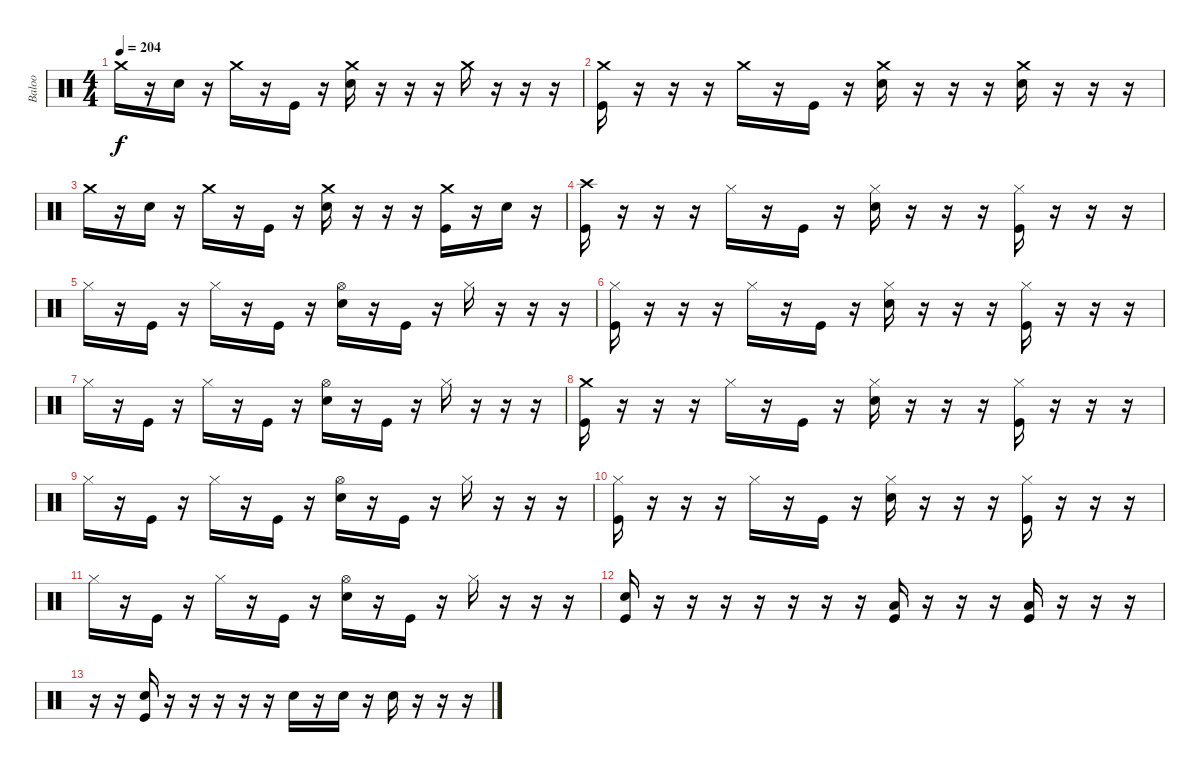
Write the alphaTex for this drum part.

\track ("Baloo" "Baloo") {instrument percussion}
\staff {score}
\articulation defaults
\ts (4 4)
\tempo 204
\clef neutral
\ks c "Crash medium (hit)".16{dy f}
r.16 "Electric Snare (hit)".16 r.16 "Crash medium (hit)".16 r.16 "Kick (hit)".16 r.16 ("Crash medium (hit)" "Electric Snare (hit)").16 r.16 r.16 r.16 "Crash medium (hit)".16 r.16 r.16 r.16 |
("Crash medium (hit)" "Kick (hit)").16 r.16 r.16 r.16 "Crash medium (hit)".16 r.16 "Kick (hit)".16 r.16 ("Crash medium (hit)" "Electric Snare (hit)").16 r.16 r.16 r.16 ("Crash medium (hit)" "Electric Snare (hit)").16 r.16 r.16 r.16 |
"Crash medium (hit)".16 r.16 "Electric Snare (hit)".16 r.16 "Crash medium (hit)".16 r.16 "Kick (hit)".16 r.16 ("Crash medium (hit)" "Electric Snare (hit)").16 r.16 r.16 r.16 ("Crash medium (hit)" "Kick (hit)").16 r.16 "Electric Snare (hit)".16 r.16 |
("Crash high (hit)" "Kick (hit)").16 r.16 r.16 r.16 "Hi-Hat (closed)".16 r.16 "Kick (hit)".16 r.16 ("Hi-Hat (closed)" "Electric Snare (hit)").16 r.16 r.16 r.16 ("Hi-Hat (closed)" "Kick (hit)").16 r.16 r.16 r.16 |
"Hi-Hat (closed)".16 r.16 "Kick (hit)".16 r.16 "Hi-Hat (closed)".16 r.16 "Kick (hit)".16 r.16 ("Hi-Hat (open)" "Electric Snare (hit)").16 r.16 "Kick (hit)".16 r.16 "Hi-Hat (closed)".16 r.16 r.16 r.16 |
("Hi-Hat (closed)" "Kick (hit)").16 r.16 r.16 r.16 "Hi-Hat (closed)".16 r.16 "Kick (hit)".16 r.16 ("Hi-Hat (closed)" "Electric Snare (hit)").16 r.16 r.16 r.16 ("Hi-Hat (closed)" "Kick (hit)").16 r.16 r.16 r.16 |
"Hi-Hat (closed)".16 r.16 "Kick (hit)".16 r.16 "Hi-Hat (closed)".16 r.16 "Kick (hit)".16 r.16 ("Hi-Hat (open)" "Electric Snare (hit)").16 r.16 "Kick (hit)".16 r.16 "Hi-Hat (closed)".16 r.16 r.16 r.16 |
("Crash medium (hit)" "Kick (hit)").16 r.16 r.16 r.16 "Hi-Hat (closed)".16 r.16 "Kick (hit)".16 r.16 ("Hi-Hat (closed)" "Electric Snare (hit)").16 r.16 r.16 r.16 ("Hi-Hat (closed)" "Kick (hit)").16 r.16 r.16 r.16 |
"Hi-Hat (closed)".16 r.16 "Kick (hit)".16 r.16 "Hi-Hat (closed)".16 r.16 "Kick (hit)".16 r.16 ("Hi-Hat (open)" "Electric Snare (hit)").16 r.16 "Kick (hit)".16 r.16 "Hi-Hat (closed)".16 r.16 r.16 r.16 |
("Hi-Hat (closed)" "Kick (hit)").16 r.16 r.16 r.16 "Hi-Hat (closed)".16 r.16 "Kick (hit)".16 r.16 ("Hi-Hat (closed)" "Electric Snare (hit)").16 r.16 r.16 r.16 ("Hi-Hat (closed)" "Kick (hit)").16 r.16 r.16 r.16 |
"Hi-Hat (closed)".16 r.16 "Kick (hit)".16 r.16 "Hi-Hat (closed)".16 r.16 "Kick (hit)".16 r.16 ("Hi-Hat (open)" "Electric Snare (hit)").16 r.16 "Kick (hit)".16 r.16 "Hi-Hat (closed)".16 r.16 r.16 r.16 |
("Electric Snare (hit)" "Kick (hit)").16 r.16 r.16 r.16 r.16 r.16 r.16 r.16 ("Low Floor Tom (hit)" "Kick (hit)").16 r.16 r.16 r.16 ("Low Floor Tom (hit)" "Kick (hit)").16 r.16 r.16 r.16 |
r.16 r.16 ("Electric Snare (hit)" "Kick (hit)").16 r.16 r.16 r.16 r.16 r.16 "Electric Snare (hit)".16 r.16 "Electric Snare (hit)".16 r.16 "Electric Snare (hit)".16 r.16 r.16 r.16
